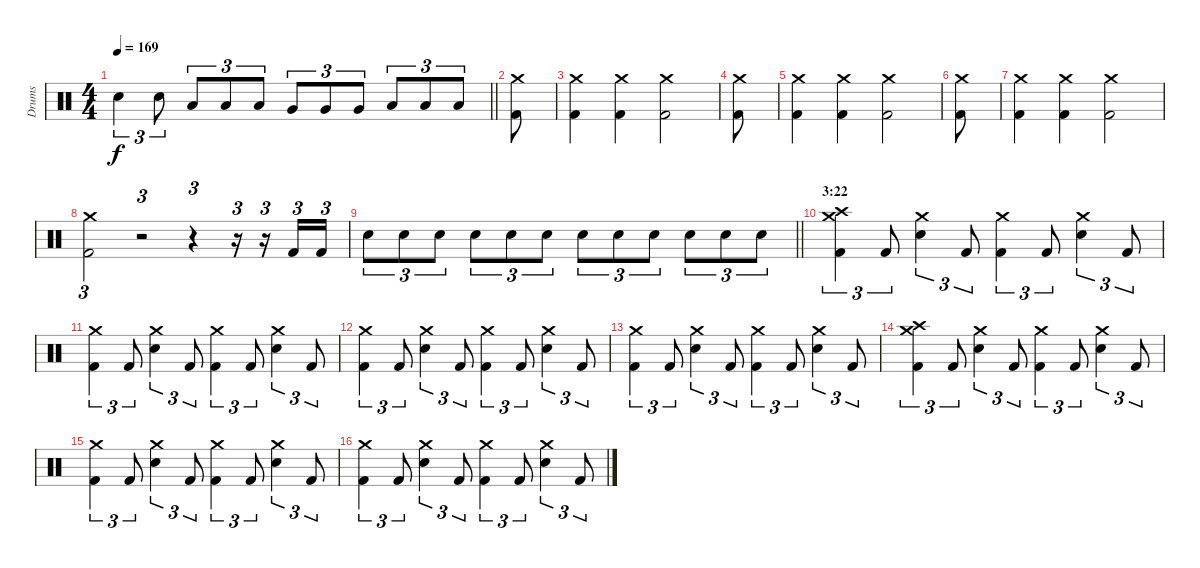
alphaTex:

\track ("Drums" "Drums") {instrument percussion}
\staff {score}
\articulation defaults
\ts (4 4)
\tempo 169
\clef neutral
\barLineRight lightlight
\ks c "Snare (hit) 2".4{tu (3 2) dy f} "Snare (hit) 2".8{tu (3 2)} "Low Tom (hit)".8{tu (3 2)} "Low Tom (hit)".8{tu (3 2)} "Low Tom (hit)".8{tu (3 2)} "Very Low Tom (hit)".8{tu (3 2)} "Very Low Tom (hit)".8{tu (3 2)} "Very Low Tom (hit)".8{tu (3 2)} "Low Floor Tom (hit)".8{tu (3 2)} "Low Floor Tom (hit)".8{tu (3 2)} "Low Floor Tom (hit)".8{tu (3 2)}
|
("Crash medium (hit)" "Kick (hit) 2").8 |
("Crash medium (hit)" "Kick (hit) 2").4 ("Crash medium (hit)" "Kick (hit) 2").4 ("Crash medium (hit)" "Kick (hit) 2").2 |
("Crash medium (hit)" "Kick (hit) 2").8 |
("Crash medium (hit)" "Kick (hit) 2").4 ("Crash medium (hit)" "Kick (hit) 2").4 ("Crash medium (hit)" "Kick (hit) 2").2 |
("Crash medium (hit)" "Kick (hit) 2").8 |
("Crash medium (hit)" "Kick (hit) 2").4 ("Crash medium (hit)" "Kick (hit) 2").4 ("Crash medium (hit)" "Kick (hit) 2").2 |
("Crash medium (hit)" "Kick (hit) 2").2{tu (3 2)} r.2{tu (3 2)} r.4{tu (3 2)} r.16{tu (3 2)} r.16{tu (3 2)} "Kick (hit) 2".16{tu (3 2)} "Kick (hit) 2".16{tu (3 2)} |
\barLineRight lightlight "Snare (hit) 2".8{tu (3 2)} "Snare (hit) 2".8{tu (3 2)} "Snare (hit) 2".8{tu (3 2)} "Snare (hit) 2".8{tu (3 2)} "Snare (hit) 2".8{tu (3 2)} "Snare (hit) 2".8{tu (3 2)} "Snare (hit) 2".8{tu (3 2)} "Snare (hit) 2".8{tu (3 2)} "Snare (hit) 2".8{tu (3 2)} "Snare (hit) 2".8{tu (3 2)} "Snare (hit) 2".8{tu (3 2)} "Snare (hit) 2".8{tu (3 2)}
|
\section ("" "3:22")
("Crash high (hit)" "Crash medium (hit)" "Kick (hit) 2").4{tu (3 2)} "Kick (hit) 2".8{tu (3 2)} ("Crash medium (hit)" "Snare (hit) 2").4{tu (3 2)} "Kick (hit) 2".8{tu (3 2)} ("Crash medium (hit)" "Kick (hit) 2").4{tu (3 2)} "Kick (hit) 2".8{tu (3 2)} ("Crash medium (hit)" "Snare (hit) 2").4{tu (3 2)} "Kick (hit) 2".8{tu (3 2)} |
("Crash medium (hit)" "Kick (hit) 2").4{tu (3 2)} "Kick (hit) 2".8{tu (3 2)} ("Crash medium (hit)" "Snare (hit) 2").4{tu (3 2)} "Kick (hit) 2".8{tu (3 2)} ("Crash medium (hit)" "Kick (hit) 2").4{tu (3 2)} "Kick (hit) 2".8{tu (3 2)} ("Crash medium (hit)" "Snare (hit) 2").4{tu (3 2)} "Kick (hit) 2".8{tu (3 2)} |
("Crash medium (hit)" "Kick (hit) 2").4{tu (3 2)} "Kick (hit) 2".8{tu (3 2)} ("Crash medium (hit)" "Snare (hit) 2").4{tu (3 2)} "Kick (hit) 2".8{tu (3 2)} ("Crash medium (hit)" "Kick (hit) 2").4{tu (3 2)} "Kick (hit) 2".8{tu (3 2)} ("Crash medium (hit)" "Snare (hit) 2").4{tu (3 2)} "Kick (hit) 2".8{tu (3 2)} |
("Crash medium (hit)" "Kick (hit) 2").4{tu (3 2)} "Kick (hit) 2".8{tu (3 2)} ("Crash medium (hit)" "Snare (hit) 2").4{tu (3 2)} "Kick (hit) 2".8{tu (3 2)} ("Crash medium (hit)" "Kick (hit) 2").4{tu (3 2)} "Kick (hit) 2".8{tu (3 2)} ("Crash medium (hit)" "Snare (hit) 2").4{tu (3 2)} "Kick (hit) 2".8{tu (3 2)} |
("Crash high (hit)" "Crash medium (hit)" "Kick (hit) 2").4{tu (3 2)} "Kick (hit) 2".8{tu (3 2)} ("Crash medium (hit)" "Snare (hit) 2").4{tu (3 2)} "Kick (hit) 2".8{tu (3 2)} ("Crash medium (hit)" "Kick (hit) 2").4{tu (3 2)} "Kick (hit) 2".8{tu (3 2)} ("Crash medium (hit)" "Snare (hit) 2").4{tu (3 2)} "Kick (hit) 2".8{tu (3 2)} |
("Crash medium (hit)" "Kick (hit) 2").4{tu (3 2)} "Kick (hit) 2".8{tu (3 2)} ("Crash medium (hit)" "Snare (hit) 2").4{tu (3 2)} "Kick (hit) 2".8{tu (3 2)} ("Crash medium (hit)" "Kick (hit) 2").4{tu (3 2)} "Kick (hit) 2".8{tu (3 2)} ("Crash medium (hit)" "Snare (hit) 2").4{tu (3 2)} "Kick (hit) 2".8{tu (3 2)} |
("Crash medium (hit)" "Kick (hit) 2").4{tu (3 2)} "Kick (hit) 2".8{tu (3 2)} ("Crash medium (hit)" "Snare (hit) 2").4{tu (3 2)} "Kick (hit) 2".8{tu (3 2)} ("Crash medium (hit)" "Kick (hit) 2").4{tu (3 2)} "Kick (hit) 2".8{tu (3 2)} ("Crash medium (hit)" "Snare (hit) 2").4{tu (3 2)} "Kick (hit) 2".8{tu (3 2)}
